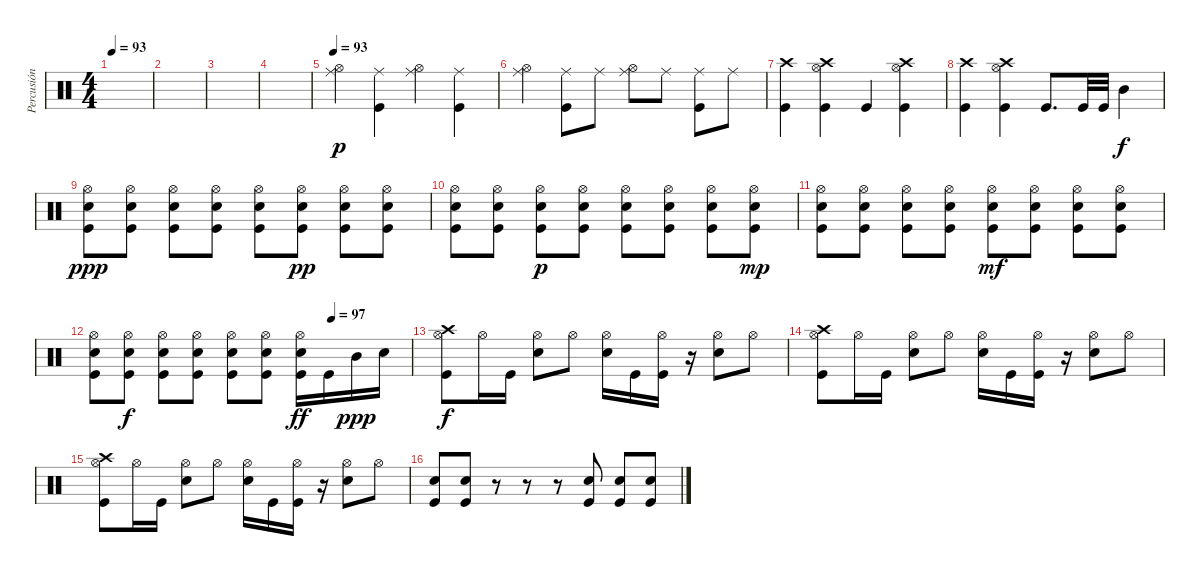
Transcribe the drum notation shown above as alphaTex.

\track ("Percusión" "Percusión") {instrument percussion}
\staff {score}
\articulation defaults
\ts (4 4)
\tempo 93
\clef neutral
\ks c
|
|
|
|
\tempo 93
("Hi-Hat (open)" "Ride (middle)").4{dy p} ("Kick (hit)" "Ride (middle)").4 ("Hi-Hat (open)" "Ride (middle)").4 ("Kick (hit)" "Ride (middle)").4 |
("Hi-Hat (open)" "Ride (middle)").4 ("Kick (hit)" "Ride (middle)").8 "Ride (middle)".8 ("Hi-Hat (open)" "Ride (middle)").8 "Ride (middle)".8 ("Kick (hit)" "Ride (middle)").8 "Ride (middle)".8 |
("Kick (hit)" "Crash high (hit)").4 ("Hi-Hat (open)" "Crash high (hit)" "Kick (hit)").4 "Kick (hit)".4 ("Hi-Hat (open)" "Crash high (hit)" "Kick (hit)").4 |
("Kick (hit)" "Crash high (hit)").4 ("Hi-Hat (open)" "Crash high (hit)" "Kick (hit)").4 "Kick (hit)".8{d} "Kick (hit)".32 "Kick (hit)".32 "Mid Tom (hit)".4{dy f} |
("Kick (hit)" "Snare (hit) 2" "Hi-Hat (open)").8{dy ppp} ("Kick (hit)" "Snare (hit) 2" "Hi-Hat (open)").8 ("Kick (hit)" "Snare (hit) 2" "Hi-Hat (open)").8 ("Kick (hit)" "Snare (hit) 2" "Hi-Hat (open)").8 ("Kick (hit)" "Snare (hit) 2" "Hi-Hat (open)").8 ("Kick (hit)" "Snare (hit) 2" "Hi-Hat (open)").8{dy pp} ("Kick (hit)" "Snare (hit) 2" "Hi-Hat (open)").8 ("Kick (hit)" "Snare (hit) 2" "Hi-Hat (open)").8 |
("Kick (hit)" "Snare (hit) 2" "Hi-Hat (open)").8 ("Kick (hit)" "Snare (hit) 2" "Hi-Hat (open)").8 ("Kick (hit)" "Snare (hit) 2" "Hi-Hat (open)").8{dy p} ("Kick (hit)" "Snare (hit) 2" "Hi-Hat (open)").8 ("Kick (hit)" "Snare (hit) 2" "Hi-Hat (open)").8 ("Kick (hit)" "Snare (hit) 2" "Hi-Hat (open)").8 ("Kick (hit)" "Snare (hit) 2" "Hi-Hat (open)").8 ("Kick (hit)" "Snare (hit) 2" "Hi-Hat (open)").8{dy mp} |
("Kick (hit)" "Snare (hit) 2" "Hi-Hat (open)").8 ("Kick (hit)" "Snare (hit) 2" "Hi-Hat (open)").8 ("Kick (hit)" "Snare (hit) 2" "Hi-Hat (open)").8 ("Kick (hit)" "Snare (hit) 2" "Hi-Hat (open)").8 ("Kick (hit)" "Snare (hit) 2" "Hi-Hat (open)").8{dy mf} ("Kick (hit)" "Snare (hit) 2" "Hi-Hat (open)").8 ("Kick (hit)" "Snare (hit) 2" "Hi-Hat (open)").8 ("Kick (hit)" "Snare (hit) 2" "Hi-Hat (open)").8 |
\tempo (97 0.75)
("Kick (hit)" "Snare (hit) 2" "Hi-Hat (open)").8 ("Kick (hit)" "Snare (hit) 2" "Hi-Hat (open)").8{dy f} ("Kick (hit)" "Snare (hit) 2" "Hi-Hat (open)").8 ("Kick (hit)" "Snare (hit) 2" "Hi-Hat (open)").8 ("Kick (hit)" "Snare (hit) 2" "Hi-Hat (open)").8 ("Kick (hit)" "Snare (hit) 2" "Hi-Hat (open)").8 ("Kick (hit)" "Snare (hit) 2" "Hi-Hat (open)").16{dy ff} "Kick (hit)".16 "Mid Tom (hit)".16{dy ppp} "Snare (hit) 2".16 |
("Kick (hit)" "Crash high (hit)" "Hi-Hat (open)").8{dy f} "Hi-Hat (open)".16 "Kick (hit)".16 ("Snare (hit) 2" "Hi-Hat (open)").8 "Hi-Hat (open)".8 ("Snare (hit) 2" "Hi-Hat (open)").16 "Kick (hit)".16 ("Kick (hit)" "Hi-Hat (open)").16 r.16 ("Snare (hit) 2" "Hi-Hat (open)").8 "Hi-Hat (open)".8 |
("Kick (hit)" "Crash high (hit)" "Hi-Hat (open)").8 "Hi-Hat (open)".16 "Kick (hit)".16 ("Snare (hit) 2" "Hi-Hat (open)").8 "Hi-Hat (open)".8 ("Snare (hit) 2" "Hi-Hat (open)").16 "Kick (hit)".16 ("Kick (hit)" "Hi-Hat (open)").16 r.16 ("Snare (hit) 2" "Hi-Hat (open)").8 "Hi-Hat (open)".8 |
("Kick (hit)" "Crash high (hit)" "Hi-Hat (open)").8 "Hi-Hat (open)".16 "Kick (hit)".16 ("Snare (hit) 2" "Hi-Hat (open)").8 "Hi-Hat (open)".8 ("Snare (hit) 2" "Hi-Hat (open)").16 "Kick (hit)".16 ("Kick (hit)" "Hi-Hat (open)").16 r.16 ("Snare (hit) 2" "Hi-Hat (open)").8 "Hi-Hat (open)".8 |
("Kick (hit)" "Snare (hit) 2").8 ("Kick (hit)" "Snare (hit) 2").8 r.8 r.8 r.8 ("Kick (hit)" "Snare (hit) 2").8 ("Kick (hit)" "Snare (hit) 2").8 ("Kick (hit)" "Snare (hit) 2").8
